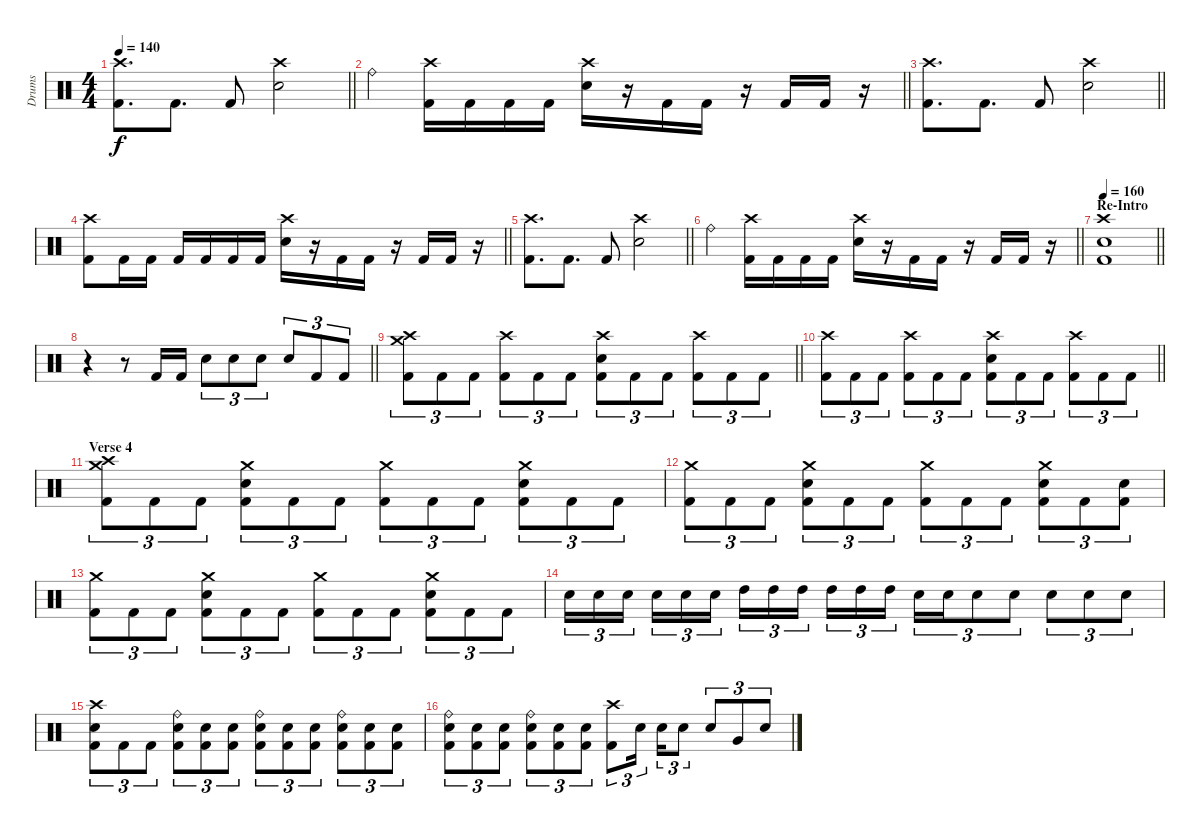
\track ("Drums" "Drums") {instrument percussion}
\staff {score}
\articulation defaults
\ts (4 4)
\tempo 140
\clef neutral
\barLineRight lightlight
\ks c
("Crash high (hit)" "Kick (hit) 2").8{d dy f} "Kick (hit) 2".8{d} "Kick (hit) 2".8 ("Crash high (hit)" "Electric Snare (hit)").2 |
\barLineRight lightlight "Ride (bell)".4
("Crash high (hit)" "Kick (hit) 2").16 "Kick (hit) 2".16 "Kick (hit) 2".16 "Kick (hit) 2".16 ("Crash high (hit)" "Electric Snare (hit)").16 r.16 "Kick (hit) 2".16 "Kick (hit) 2".16 r.16 "Kick (hit) 2".16 "Kick (hit) 2".16 r.16 |
\barLineRight lightlight
("Crash high (hit)" "Kick (hit) 2").8{d} "Kick (hit) 2".8{d} "Kick (hit) 2".8 ("Crash high (hit)" "Electric Snare (hit)").2 |
\barLineRight lightlight
("Crash high (hit)" "Kick (hit) 2").8 "Kick (hit) 2".16 "Kick (hit) 2".16 "Kick (hit) 2".16 "Kick (hit) 2".16 "Kick (hit) 2".16 "Kick (hit) 2".16 ("Crash high (hit)" "Electric Snare (hit)").16 r.16 "Kick (hit) 2".16 "Kick (hit) 2".16 r.16 "Kick (hit) 2".16 "Kick (hit) 2".16 r.16 |
\barLineRight lightlight
("Crash high (hit)" "Kick (hit) 2").8{d} "Kick (hit) 2".8{d} "Kick (hit) 2".8 ("Crash high (hit)" "Electric Snare (hit)").2 |
\barLineRight lightlight "Ride (bell)".4
("Crash high (hit)" "Kick (hit) 2").16 "Kick (hit) 2".16 "Kick (hit) 2".16 "Kick (hit) 2".16 ("Crash high (hit)" "Electric Snare (hit)").16 r.16 "Kick (hit) 2".16 "Kick (hit) 2".16 r.16 "Kick (hit) 2".16 "Kick (hit) 2".16 r.16 |
\section ("" "Re-Intro")
\tempo 160
\barLineRight lightlight
("Crash high (hit)" "Electric Snare (hit)" "Kick (hit) 2").1 |
\barLineRight lightlight
r.4 r.8 "Kick (hit) 2".16 "Kick (hit) 2".16 "Electric Snare (hit)".8{tu (3 2)} "Electric Snare (hit)".8{tu (3 2)} "Electric Snare (hit)".8{tu (3 2)} "Electric Snare (hit)".8{tu (3 2)} "Kick (hit) 2".8{tu (3 2)} "Kick (hit) 2".8{tu (3 2)} |
\barLineRight lightlight
("Crash medium (hit)" "Crash high (hit)" "Kick (hit) 2").8{tu (3 2)} "Kick (hit) 2".8{tu (3 2)} "Kick (hit) 2".8{tu (3 2)} ("Crash high (hit)" "Kick (hit) 2").8{tu (3 2)} "Kick (hit) 2".8{tu (3 2)} "Kick (hit) 2".8{tu (3 2)} ("Crash high (hit)" "Electric Snare (hit)" "Kick (hit) 2").8{tu (3 2)} "Kick (hit) 2".8{tu (3 2)} "Kick (hit) 2".8{tu (3 2)} ("Crash high (hit)" "Kick (hit) 2").8{tu (3 2)} "Kick (hit) 2".8{tu (3 2)} "Kick (hit) 2".8{tu (3 2)} |
\barLineRight lightlight
("Crash high (hit)" "Kick (hit) 2").8{tu (3 2)} "Kick (hit) 2".8{tu (3 2)} "Kick (hit) 2".8{tu (3 2)} ("Crash high (hit)" "Kick (hit) 2").8{tu (3 2)} "Kick (hit) 2".8{tu (3 2)} "Kick (hit) 2".8{tu (3 2)} ("Crash high (hit)" "Electric Snare (hit)" "Kick (hit) 2").8{tu (3 2)} "Kick (hit) 2".8{tu (3 2)} "Kick (hit) 2".8{tu (3 2)} ("Crash high (hit)" "Kick (hit) 2").8{tu (3 2)} "Kick (hit) 2".8{tu (3 2)} "Kick (hit) 2".8{tu (3 2)} |
\section ("" "Verse 4")
("Crash high (hit)" "Crash medium (hit)" "Kick (hit) 2").8{tu (3 2)} "Kick (hit) 2".8{tu (3 2)} "Kick (hit) 2".8{tu (3 2)} ("Crash medium (hit)" "Electric Snare (hit)" "Kick (hit) 2").8{tu (3 2)} "Kick (hit) 2".8{tu (3 2)} "Kick (hit) 2".8{tu (3 2)} ("Crash medium (hit)" "Kick (hit) 2").8{tu (3 2)} "Kick (hit) 2".8{tu (3 2)} "Kick (hit) 2".8{tu (3 2)} ("Crash medium (hit)" "Electric Snare (hit)" "Kick (hit) 2").8{tu (3 2)} "Kick (hit) 2".8{tu (3 2)} "Kick (hit) 2".8{tu (3 2)} |
("Crash medium (hit)" "Kick (hit) 2").8{tu (3 2)} "Kick (hit) 2".8{tu (3 2)} "Kick (hit) 2".8{tu (3 2)} ("Crash medium (hit)" "Electric Snare (hit)" "Kick (hit) 2").8{tu (3 2)} "Kick (hit) 2".8{tu (3 2)} "Kick (hit) 2".8{tu (3 2)} ("Crash medium (hit)" "Kick (hit) 2").8{tu (3 2)} "Kick (hit) 2".8{tu (3 2)} "Kick (hit) 2".8{tu (3 2)} ("Crash medium (hit)" "Electric Snare (hit)" "Kick (hit) 2").8{tu (3 2)} "Kick (hit) 2".8{tu (3 2)} ("Electric Snare (hit)" "Kick (hit) 2").8{tu (3 2)} |
("Crash medium (hit)" "Kick (hit) 2").8{tu (3 2)} "Kick (hit) 2".8{tu (3 2)} "Kick (hit) 2".8{tu (3 2)} ("Crash medium (hit)" "Electric Snare (hit)" "Kick (hit) 2").8{tu (3 2)} "Kick (hit) 2".8{tu (3 2)} "Kick (hit) 2".8{tu (3 2)} ("Crash medium (hit)" "Kick (hit) 2").8{tu (3 2)} "Kick (hit) 2".8{tu (3 2)} "Kick (hit) 2".8{tu (3 2)} ("Crash medium (hit)" "Electric Snare (hit)" "Kick (hit) 2").8{tu (3 2)} "Kick (hit) 2".8{tu (3 2)} "Kick (hit) 2".8{tu (3 2)} |
"Electric Snare (hit)".16{tu (3 2)} "Electric Snare (hit)".16{tu (3 2)} "Electric Snare (hit)".16{tu (3 2) beam splitsecondary} "Electric Snare (hit)".16{tu (3 2)} "Electric Snare (hit)".16{tu (3 2)} "Electric Snare (hit)".16{tu (3 2)} "High Tom (hit)".16{tu (3 2)} "High Tom (hit)".16{tu (3 2)} "High Tom (hit)".16{tu (3 2) beam splitsecondary} "High Tom (hit)".16{tu (3 2)} "High Tom (hit)".16{tu (3 2)} "High Tom (hit)".16{tu (3 2)} "Electric Snare (hit)".16{tu (3 2)} "Electric Snare (hit)".16{tu (3 2)} "Electric Snare (hit)".8{tu (3 2)} "Electric Snare (hit)".8{tu (3 2)} "Electric Snare (hit)".8{tu (3 2)} "Electric Snare (hit)".8{tu (3 2)} "Electric Snare (hit)".8{tu (3 2)} |
("Crash high (hit)" "Electric Snare (hit)" "Kick (hit) 2").8{tu (3 2)} "Kick (hit) 2".8{tu (3 2)} "Kick (hit) 2".8{tu (3 2)} ("Ride (bell)" "Electric Snare (hit)" "Kick (hit) 2").8{tu (3 2)} ("Electric Snare (hit)" "Kick (hit) 2").8{tu (3 2)} ("Electric Snare (hit)" "Kick (hit) 2").8{tu (3 2)} ("Ride (bell)" "Electric Snare (hit)" "Kick (hit) 2").8{tu (3 2)} ("Electric Snare (hit)" "Kick (hit) 2").8{tu (3 2)} ("Electric Snare (hit)" "Kick (hit) 2").8{tu (3 2)} ("Ride (bell)" "Electric Snare (hit)" "Kick (hit) 2").8{tu (3 2)} ("Electric Snare (hit)" "Kick (hit) 2").8{tu (3 2)} ("Electric Snare (hit)" "Kick (hit) 2").8{tu (3 2)} |
("Ride (bell)" "Electric Snare (hit)" "Kick (hit) 2").8{tu (3 2)} ("Electric Snare (hit)" "Kick (hit) 2").8{tu (3 2)} ("Electric Snare (hit)" "Kick (hit) 2").8{tu (3 2)} ("Ride (bell)" "Electric Snare (hit)" "Kick (hit) 2").8{tu (3 2)} ("Electric Snare (hit)" "Kick (hit) 2").8{tu (3 2)} ("Electric Snare (hit)" "Kick (hit) 2").8{tu (3 2)} ("Crash high (hit)" "Kick (hit) 2").8{tu (3 2)} "Electric Snare (hit)".16{tu (3 2) beam splitsecondary} "Electric Snare (hit)".16{tu (3 2)} "Electric Snare (hit)".8{tu (3 2)} "Electric Snare (hit)".8{tu (3 2)} "Very Low Tom (hit)".8{tu (3 2)} "Electric Snare (hit)".8{tu (3 2)}
